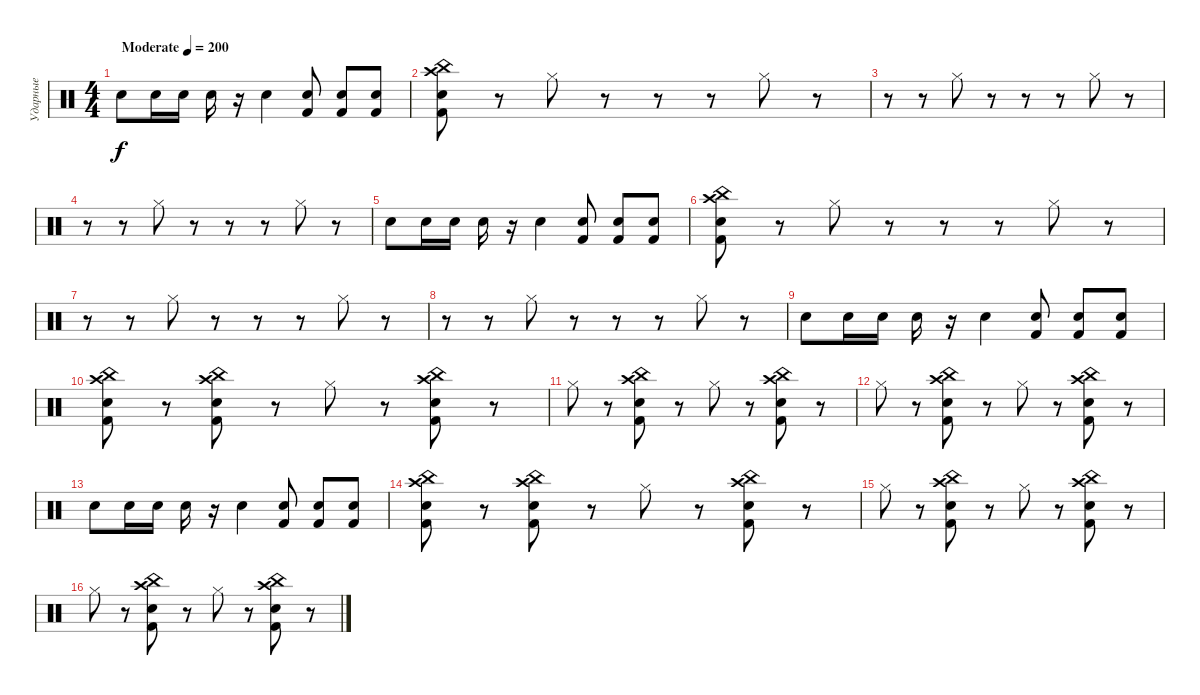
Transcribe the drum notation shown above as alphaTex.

\track ("Ударные" "Ударные") {instrument percussion}
\staff {score}
\articulation defaults
\ts (4 4)
\tempo (200 "Moderate")
\clef neutral
\ks c "Electric Snare (hit)".8{dy f} "Electric Snare (hit)".16 "Electric Snare (hit)".16 "Electric Snare (hit)".16
r.16 "Electric Snare (hit)".4 ("Electric Snare (hit)" "Kick (hit) 2").8 ("Electric Snare (hit)" "Kick (hit) 2").8 ("Electric Snare (hit)" "Kick (hit) 2").8 |
("Kick (hit) 2" "Electric Snare (hit)" "Crash high (hit)" "China (hit)").8 r.8 "Hi-Hat (closed)".8 r.8 r.8 r.8 "Hi-Hat (closed)".8 r.8 |
r.8 r.8 "Hi-Hat (closed)".8 r.8 r.8 r.8 "Hi-Hat (closed)".8 r.8 |
r.8 r.8 "Hi-Hat (closed)".8 r.8 r.8 r.8 "Hi-Hat (closed)".8 r.8 |
"Electric Snare (hit)".8 "Electric Snare (hit)".16 "Electric Snare (hit)".16 "Electric Snare (hit)".16 r.16 "Electric Snare (hit)".4 ("Electric Snare (hit)" "Kick (hit) 2").8 ("Electric Snare (hit)" "Kick (hit) 2").8 ("Electric Snare (hit)" "Kick (hit) 2").8 |
("China (hit)" "Crash high (hit)" "Kick (hit) 2" "Electric Snare (hit)").8 r.8 "Hi-Hat (closed)".8 r.8 r.8 r.8 "Hi-Hat (closed)".8 r.8 |
r.8 r.8 "Hi-Hat (closed)".8 r.8 r.8 r.8 "Hi-Hat (closed)".8 r.8 |
r.8 r.8 "Hi-Hat (closed)".8 r.8 r.8 r.8 "Hi-Hat (closed)".8 r.8 |
"Electric Snare (hit)".8 "Electric Snare (hit)".16 "Electric Snare (hit)".16 "Electric Snare (hit)".16 r.16 "Electric Snare (hit)".4 ("Electric Snare (hit)" "Kick (hit) 2").8 ("Electric Snare (hit)" "Kick (hit) 2").8 ("Electric Snare (hit)" "Kick (hit) 2").8 |
("Electric Snare (hit)" "Kick (hit) 2" "Crash high (hit)" "China (hit)").8 r.8 ("China (hit)" "Crash high (hit)" "Kick (hit) 2" "Electric Snare (hit)").8 r.8 "Hi-Hat (closed)".8 r.8 ("Kick (hit) 2" "Electric Snare (hit)" "Crash high (hit)" "China (hit)").8 r.8 |
"Hi-Hat (closed)".8 r.8 ("Kick (hit) 2" "Electric Snare (hit)" "Crash high (hit)" "China (hit)").8 r.8 "Hi-Hat (closed)".8 r.8 ("Crash high (hit)" "China (hit)" "Kick (hit) 2" "Electric Snare (hit)").8 r.8 |
"Hi-Hat (closed)".8 r.8 ("Kick (hit) 2" "Electric Snare (hit)" "Crash high (hit)" "China (hit)").8 r.8 "Hi-Hat (closed)".8 r.8 ("Crash high (hit)" "China (hit)" "Kick (hit) 2" "Electric Snare (hit)").8 r.8 |
"Electric Snare (hit)".8 "Electric Snare (hit)".16 "Electric Snare (hit)".16 "Electric Snare (hit)".16 r.16 "Electric Snare (hit)".4 ("Electric Snare (hit)" "Kick (hit) 2").8 ("Electric Snare (hit)" "Kick (hit) 2").8 ("Electric Snare (hit)" "Kick (hit) 2").8 |
("Electric Snare (hit)" "Kick (hit) 2" "Crash high (hit)" "China (hit)").8 r.8 ("China (hit)" "Crash high (hit)" "Kick (hit) 2" "Electric Snare (hit)").8 r.8 "Hi-Hat (closed)".8 r.8 ("Kick (hit) 2" "Electric Snare (hit)" "Crash high (hit)" "China (hit)").8 r.8 |
"Hi-Hat (closed)".8 r.8 ("Kick (hit) 2" "Electric Snare (hit)" "Crash high (hit)" "China (hit)").8 r.8 "Hi-Hat (closed)".8 r.8 ("Crash high (hit)" "China (hit)" "Kick (hit) 2" "Electric Snare (hit)").8 r.8 |
"Hi-Hat (closed)".8 r.8 ("Kick (hit) 2" "Electric Snare (hit)" "Crash high (hit)" "China (hit)").8 r.8 "Hi-Hat (closed)".8 r.8 ("Crash high (hit)" "China (hit)" "Kick (hit) 2" "Electric Snare (hit)").8 r.8
